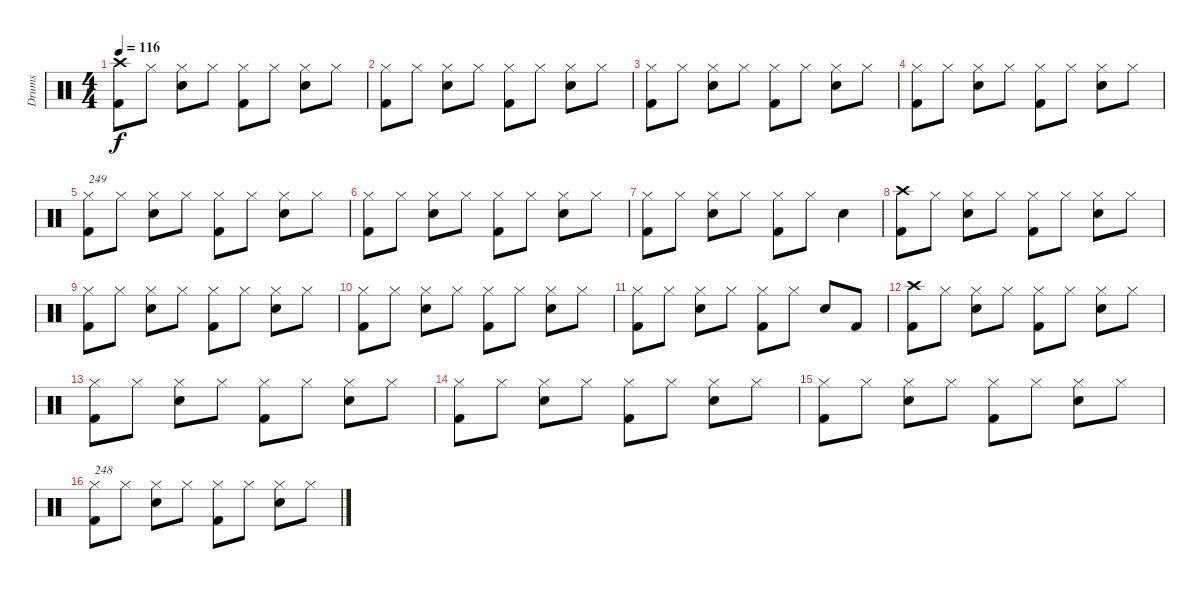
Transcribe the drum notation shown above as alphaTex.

\track ("Drums" "Drums") {instrument percussion}
\staff {score}
\articulation defaults
\ts (4 4)
\tempo 116
\clef neutral
\ks c
("Crash high (hit)" "Kick (hit) 2").8{dy f} "Hi-Hat (closed)".8 ("Hi-Hat (closed)" "Snare (hit) 2").8 "Hi-Hat (closed)".8 ("Hi-Hat (closed)" "Kick (hit) 2").8 "Hi-Hat (closed)".8 ("Hi-Hat (closed)" "Snare (hit) 2").8 "Hi-Hat (closed)".8 |
("Hi-Hat (closed)" "Kick (hit) 2").8 "Hi-Hat (closed)".8 ("Hi-Hat (closed)" "Snare (hit) 2").8 "Hi-Hat (closed)".8 ("Hi-Hat (closed)" "Kick (hit) 2").8 "Hi-Hat (closed)".8 ("Hi-Hat (closed)" "Snare (hit) 2").8 "Hi-Hat (closed)".8 |
("Hi-Hat (closed)" "Kick (hit) 2").8 "Hi-Hat (closed)".8 ("Hi-Hat (closed)" "Snare (hit) 2").8 "Hi-Hat (closed)".8 ("Hi-Hat (closed)" "Kick (hit) 2").8 "Hi-Hat (closed)".8 ("Hi-Hat (closed)" "Snare (hit) 2").8 "Hi-Hat (closed)".8 |
("Hi-Hat (closed)" "Kick (hit) 2").8 "Hi-Hat (closed)".8 ("Hi-Hat (closed)" "Snare (hit) 2").8 "Hi-Hat (closed)".8 ("Hi-Hat (closed)" "Kick (hit) 2").8 "Hi-Hat (closed)".8 ("Hi-Hat (closed)" "Snare (hit) 2").8 "Hi-Hat (closed)".8 |
("Hi-Hat (closed)" "Kick (hit) 2").8{txt "249"} "Hi-Hat (closed)".8 ("Hi-Hat (closed)" "Snare (hit) 2").8 "Hi-Hat (closed)".8 ("Hi-Hat (closed)" "Kick (hit) 2").8 "Hi-Hat (closed)".8 ("Hi-Hat (closed)" "Snare (hit) 2").8 "Hi-Hat (closed)".8 |
("Hi-Hat (closed)" "Kick (hit) 2").8 "Hi-Hat (closed)".8 ("Hi-Hat (closed)" "Snare (hit) 2").8 "Hi-Hat (closed)".8 ("Hi-Hat (closed)" "Kick (hit) 2").8 "Hi-Hat (closed)".8 ("Hi-Hat (closed)" "Snare (hit) 2").8 "Hi-Hat (closed)".8 |
("Hi-Hat (closed)" "Kick (hit) 2").8 "Hi-Hat (closed)".8 ("Hi-Hat (closed)" "Snare (hit) 2").8 "Hi-Hat (closed)".8 ("Hi-Hat (closed)" "Kick (hit) 2").8 "Hi-Hat (closed)".8 "Snare (hit) 2".4 |
("Crash high (hit)" "Kick (hit) 2").8 "Hi-Hat (closed)".8 ("Hi-Hat (closed)" "Snare (hit) 2").8 "Hi-Hat (closed)".8 ("Hi-Hat (closed)" "Kick (hit) 2").8 "Hi-Hat (closed)".8 ("Hi-Hat (closed)" "Snare (hit) 2").8 "Hi-Hat (closed)".8 |
("Hi-Hat (closed)" "Kick (hit) 2").8 "Hi-Hat (closed)".8 ("Hi-Hat (closed)" "Snare (hit) 2").8 "Hi-Hat (closed)".8 ("Hi-Hat (closed)" "Kick (hit) 2").8 "Hi-Hat (closed)".8 ("Hi-Hat (closed)" "Snare (hit) 2").8 "Hi-Hat (closed)".8 |
("Hi-Hat (closed)" "Kick (hit) 2").8 "Hi-Hat (closed)".8 ("Hi-Hat (closed)" "Snare (hit) 2").8 "Hi-Hat (closed)".8 ("Hi-Hat (closed)" "Kick (hit) 2").8 "Hi-Hat (closed)".8 ("Hi-Hat (closed)" "Snare (hit) 2").8 "Hi-Hat (closed)".8 |
("Hi-Hat (closed)" "Kick (hit) 2").8 "Hi-Hat (closed)".8 ("Hi-Hat (closed)" "Snare (hit) 2").8 "Hi-Hat (closed)".8 ("Hi-Hat (closed)" "Kick (hit) 2").8 "Hi-Hat (closed)".8 "Snare (hit) 2".8 "Kick (hit) 2".8 |
("Crash high (hit)" "Kick (hit) 2").8 "Hi-Hat (closed)".8 ("Hi-Hat (closed)" "Snare (hit) 2").8 "Hi-Hat (closed)".8 ("Hi-Hat (closed)" "Kick (hit) 2").8 "Hi-Hat (closed)".8 ("Hi-Hat (closed)" "Snare (hit) 2").8 "Hi-Hat (closed)".8 |
("Hi-Hat (closed)" "Kick (hit) 2").8 "Hi-Hat (closed)".8 ("Hi-Hat (closed)" "Snare (hit) 2").8 "Hi-Hat (closed)".8 ("Hi-Hat (closed)" "Kick (hit) 2").8 "Hi-Hat (closed)".8 ("Hi-Hat (closed)" "Snare (hit) 2").8 "Hi-Hat (closed)".8 |
("Hi-Hat (closed)" "Kick (hit) 2").8 "Hi-Hat (closed)".8 ("Hi-Hat (closed)" "Snare (hit) 2").8 "Hi-Hat (closed)".8 ("Hi-Hat (closed)" "Kick (hit) 2").8 "Hi-Hat (closed)".8 ("Hi-Hat (closed)" "Snare (hit) 2").8 "Hi-Hat (closed)".8 |
("Hi-Hat (closed)" "Kick (hit) 2").8 "Hi-Hat (closed)".8 ("Hi-Hat (closed)" "Snare (hit) 2").8 "Hi-Hat (closed)".8 ("Hi-Hat (closed)" "Kick (hit) 2").8 "Hi-Hat (closed)".8 ("Hi-Hat (closed)" "Snare (hit) 2").8 "Hi-Hat (closed)".8 |
("Hi-Hat (closed)" "Kick (hit) 2").8{txt "248"} "Hi-Hat (closed)".8 ("Hi-Hat (closed)" "Snare (hit) 2").8 "Hi-Hat (closed)".8 ("Hi-Hat (closed)" "Kick (hit) 2").8 "Hi-Hat (closed)".8 ("Hi-Hat (closed)" "Snare (hit) 2").8 "Hi-Hat (closed)".8
